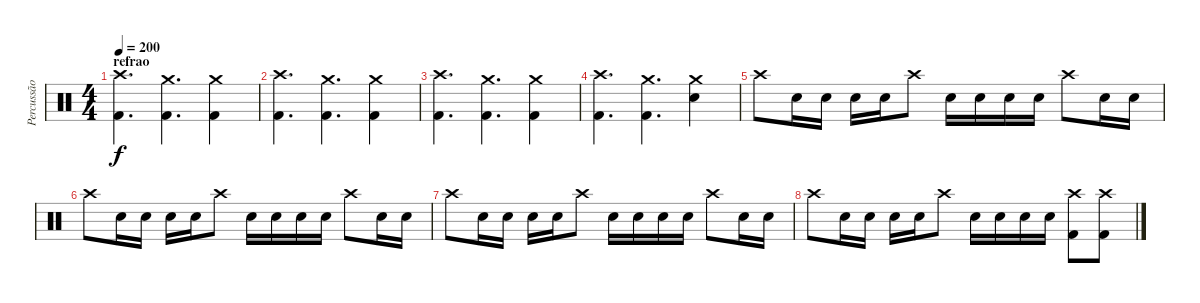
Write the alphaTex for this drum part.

\track ("Percussão" "Percussão") {instrument percussion}
\staff {score}
\articulation defaults
\ts (4 4)
\section ("" "refrao")
\tempo 200
\clef neutral
\ks c
("Crash high (hit)" "Kick (hit) 2").4{d dy f} ("Crash medium (hit)" "Kick (hit) 2").4{d} ("Crash medium (hit)" "Kick (hit) 2").4 |
("Crash high (hit)" "Kick (hit) 2").4{d} ("Crash medium (hit)" "Kick (hit) 2").4{d} ("Crash medium (hit)" "Kick (hit) 2").4 |
("Crash high (hit)" "Kick (hit) 2").4{d} ("Crash medium (hit)" "Kick (hit) 2").4{d} ("Crash medium (hit)" "Kick (hit) 2").4 |
("Crash high (hit)" "Kick (hit) 2").4{d} ("Crash medium (hit)" "Kick (hit) 2").4{d} ("Crash medium (hit)" "Snare (hit) 2").4 |
"Crash high (hit)".8 "Snare (hit) 2".16 "Snare (hit) 2".16 "Snare (hit) 2".16 "Snare (hit) 2".16 "Crash high (hit)".8 "Snare (hit) 2".16 "Snare (hit) 2".16 "Snare (hit) 2".16 "Snare (hit) 2".16 "Crash high (hit)".8 "Snare (hit) 2".16 "Snare (hit) 2".16 |
"Crash high (hit)".8 "Snare (hit) 2".16 "Snare (hit) 2".16 "Snare (hit) 2".16 "Snare (hit) 2".16 "Crash high (hit)".8 "Snare (hit) 2".16 "Snare (hit) 2".16 "Snare (hit) 2".16 "Snare (hit) 2".16 "Crash high (hit)".8 "Snare (hit) 2".16 "Snare (hit) 2".16 |
"Crash high (hit)".8 "Snare (hit) 2".16 "Snare (hit) 2".16 "Snare (hit) 2".16 "Snare (hit) 2".16 "Crash high (hit)".8 "Snare (hit) 2".16 "Snare (hit) 2".16 "Snare (hit) 2".16 "Snare (hit) 2".16 "Crash high (hit)".8 "Snare (hit) 2".16 "Snare (hit) 2".16 |
"Crash high (hit)".8 "Snare (hit) 2".16 "Snare (hit) 2".16 "Snare (hit) 2".16 "Snare (hit) 2".16 "Crash high (hit)".8 "Snare (hit) 2".16 "Snare (hit) 2".16 "Snare (hit) 2".16 "Snare (hit) 2".16 ("Crash high (hit)" "Kick (hit) 2").8 ("Crash high (hit)" "Kick (hit) 2").8
